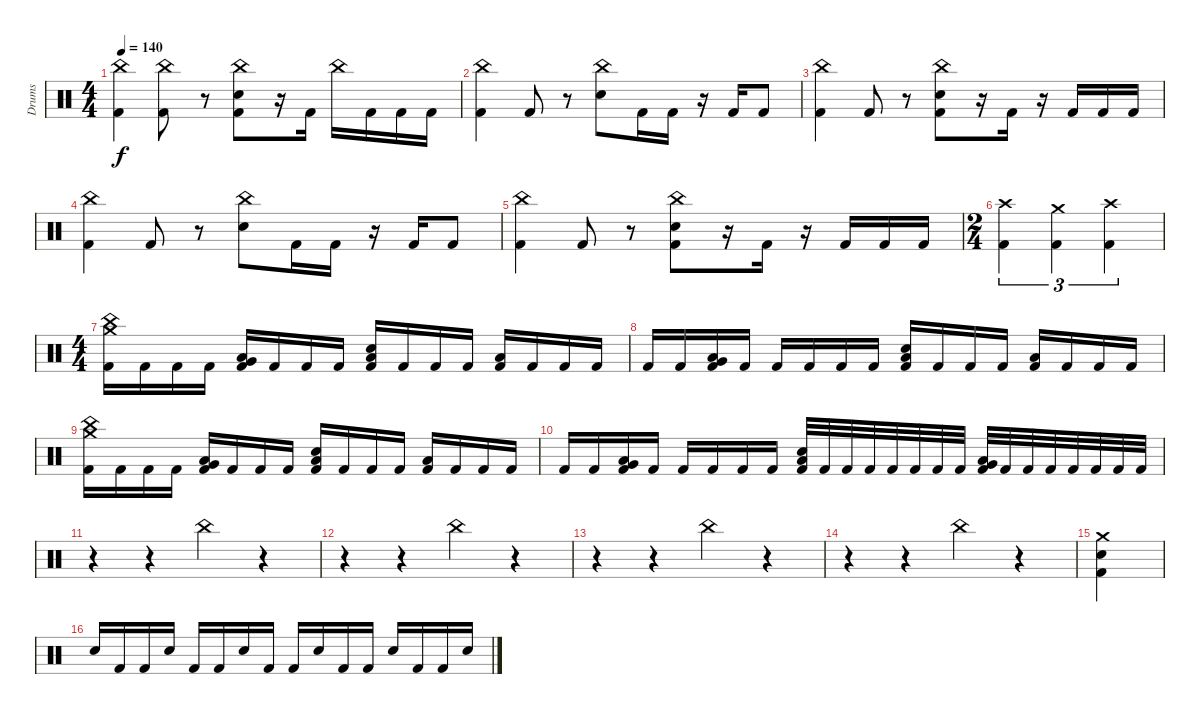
\track ("Drums" "Drums") {instrument percussion}
\staff {score}
\articulation defaults
\ts (4 4)
\tempo 140
\clef neutral
\ks c
("China (hit)" "Kick (hit) 2").4{dy f} ("China (hit)" "Kick (hit) 2").8 r.8 ("China (hit)" "Electric Snare (hit)" "Kick (hit) 2").8 r.16 "Kick (hit) 2".16 "China (hit)".16 "Kick (hit) 2".16 "Kick (hit) 2".16 "Kick (hit) 2".16 |
("China (hit)" "Kick (hit) 2").4 "Kick (hit) 2".8 r.8 ("China (hit)" "Electric Snare (hit)").8 "Kick (hit) 2".16 "Kick (hit) 2".16 r.16 "Kick (hit) 2".16 "Kick (hit) 2".8 |
("China (hit)" "Kick (hit) 2").4 "Kick (hit) 2".8 r.8 ("China (hit)" "Electric Snare (hit)" "Kick (hit) 2").8 r.16 "Kick (hit) 2".16 r.16 "Kick (hit) 2".16 "Kick (hit) 2".16 "Kick (hit) 2".16 |
("China (hit)" "Kick (hit) 2").4 "Kick (hit) 2".8 r.8 ("China (hit)" "Electric Snare (hit)").8 "Kick (hit) 2".16 "Kick (hit) 2".16 r.16 "Kick (hit) 2".16 "Kick (hit) 2".8 |
("China (hit)" "Kick (hit) 2").4 "Kick (hit) 2".8 r.8 ("China (hit)" "Electric Snare (hit)" "Kick (hit) 2").8 r.16 "Kick (hit) 2".16 r.16 "Kick (hit) 2".16 "Kick (hit) 2".16 "Kick (hit) 2".16 |
\ts (2 4)
("Crash high (hit)" "Kick (hit) 2").4{tu (3 2)} ("Crash medium (hit)" "Kick (hit) 2").4{tu (3 2)} ("Crash high (hit)" "Kick (hit) 2").4{tu (3 2)} |
\ts (4 4)
("China (hit)" "Crash medium (hit)" "Kick (hit) 2").16 "Kick (hit) 2".16 "Kick (hit) 2".16 "Kick (hit) 2".16 ("Very Low Tom (hit)" "Low Tom (hit)" "Kick (hit) 2").16 "Kick (hit) 2".16 "Kick (hit) 2".16 "Kick (hit) 2".16 ("Electric Snare (hit)" "Low Tom (hit)" "Kick (hit) 2").16 "Kick (hit) 2".16 "Kick (hit) 2".16 "Kick (hit) 2".16 ("Low Tom (hit)" "Kick (hit) 2").16 "Kick (hit) 2".16 "Kick (hit) 2".16 "Kick (hit) 2".16 |
"Kick (hit) 2".16 "Kick (hit) 2".16 ("Low Tom (hit)" "Very Low Tom (hit)" "Kick (hit) 2").16 "Kick (hit) 2".16 "Kick (hit) 2".16 "Kick (hit) 2".16 "Kick (hit) 2".16 "Kick (hit) 2".16 ("Electric Snare (hit)" "Low Tom (hit)" "Kick (hit) 2").16 "Kick (hit) 2".16 "Kick (hit) 2".16 "Kick (hit) 2".16 ("Low Tom (hit)" "Kick (hit) 2").16 "Kick (hit) 2".16 "Kick (hit) 2".16 "Kick (hit) 2".16 |
("China (hit)" "Crash medium (hit)" "Kick (hit) 2").16 "Kick (hit) 2".16 "Kick (hit) 2".16 "Kick (hit) 2".16 ("Very Low Tom (hit)" "Low Tom (hit)" "Kick (hit) 2").16 "Kick (hit) 2".16 "Kick (hit) 2".16 "Kick (hit) 2".16 ("Electric Snare (hit)" "Low Tom (hit)" "Kick (hit) 2").16 "Kick (hit) 2".16 "Kick (hit) 2".16 "Kick (hit) 2".16 ("Low Tom (hit)" "Kick (hit) 2").16 "Kick (hit) 2".16 "Kick (hit) 2".16 "Kick (hit) 2".16 |
"Kick (hit) 2".16 "Kick (hit) 2".16 ("Low Tom (hit)" "Very Low Tom (hit)" "Kick (hit) 2").16 "Kick (hit) 2".16 "Kick (hit) 2".16 "Kick (hit) 2".16 "Kick (hit) 2".16 "Kick (hit) 2".16 ("Electric Snare (hit)" "Low Tom (hit)" "Kick (hit) 2").32 "Kick (hit) 2".32 "Kick (hit) 2".32 "Kick (hit) 2".32 "Kick (hit) 2".32 "Kick (hit) 2".32 "Kick (hit) 2".32 "Kick (hit) 2".32 ("Very Low Tom (hit)" "Low Tom (hit)" "Kick (hit) 2").32 "Kick (hit) 2".32 "Kick (hit) 2".32 "Kick (hit) 2".32 "Kick (hit) 2".32 "Kick (hit) 2".32 "Kick (hit) 2".32 "Kick (hit) 2".32 |
r.4 r.4 "China (hit)".4 r.4 |
r.4 r.4 "China (hit)".4 r.4 |
r.4 r.4 "China (hit)".4 r.4 |
r.4 r.4 "China (hit)".4 r.4 |
("Crash medium (hit)" "Electric Snare (hit)" "Kick (hit) 2").4 |
"Electric Snare (hit)".16 "Kick (hit) 2".16 "Kick (hit) 2".16 "Electric Snare (hit)".16 "Kick (hit) 2".16 "Kick (hit) 2".16 "Electric Snare (hit)".16 "Kick (hit) 2".16 "Kick (hit) 2".16 "Electric Snare (hit)".16 "Kick (hit) 2".16 "Kick (hit) 2".16 "Electric Snare (hit)".16 "Kick (hit) 2".16 "Kick (hit) 2".16 "Electric Snare (hit)".16
